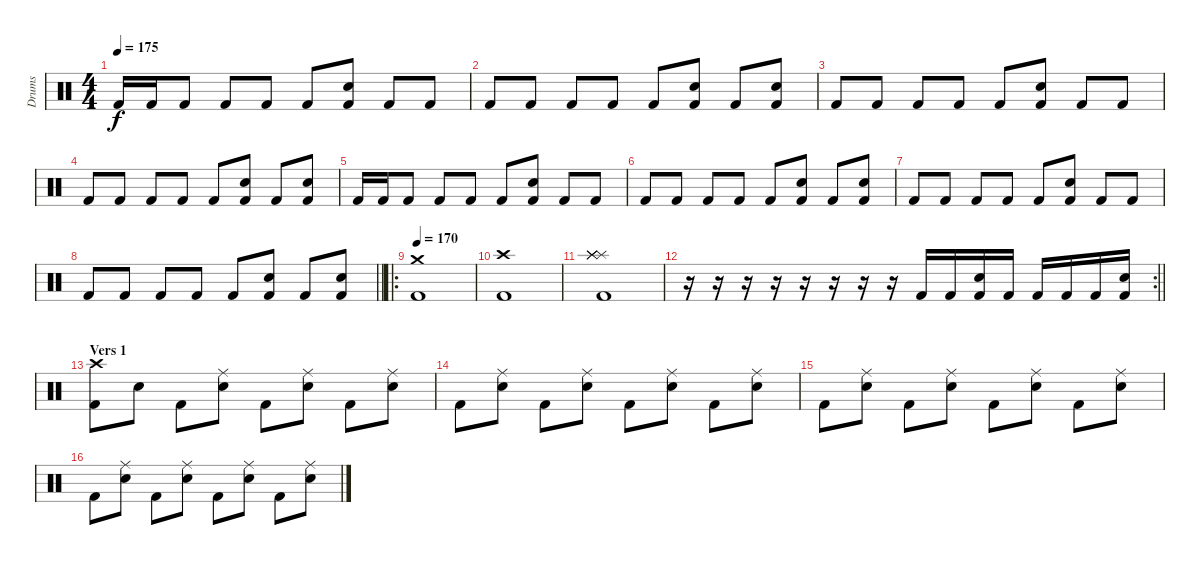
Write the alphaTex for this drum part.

\track ("Drums" "Drums") {instrument percussion}
\staff {score}
\articulation defaults
\ts (4 4)
\tempo 175
\clef neutral
\ks c "Kick (hit) 2".16{dy f} "Kick (hit) 2".16 "Kick (hit) 2".8 "Kick (hit) 2".8 "Kick (hit) 2".8 "Kick (hit) 2".8
("Snare (hit) 2" "Kick (hit) 2").8 "Kick (hit) 2".8 "Kick (hit) 2".8 |
"Kick (hit) 2".8 "Kick (hit) 2".8 "Kick (hit) 2".8 "Kick (hit) 2".8 "Kick (hit) 2".8 ("Snare (hit) 2" "Kick (hit) 2").8 "Kick (hit) 2".8 ("Snare (hit) 2" "Kick (hit) 2").8 |
"Kick (hit) 2".8 "Kick (hit) 2".8 "Kick (hit) 2".8 "Kick (hit) 2".8 "Kick (hit) 2".8 ("Snare (hit) 2" "Kick (hit) 2").8 "Kick (hit) 2".8 "Kick (hit) 2".8 |
"Kick (hit) 2".8 "Kick (hit) 2".8 "Kick (hit) 2".8 "Kick (hit) 2".8 "Kick (hit) 2".8 ("Snare (hit) 2" "Kick (hit) 2").8 "Kick (hit) 2".8 ("Snare (hit) 2" "Kick (hit) 2").8 |
"Kick (hit) 2".16 "Kick (hit) 2".16 "Kick (hit) 2".8 "Kick (hit) 2".8 "Kick (hit) 2".8 "Kick (hit) 2".8 ("Snare (hit) 2" "Kick (hit) 2").8 "Kick (hit) 2".8 "Kick (hit) 2".8 |
"Kick (hit) 2".8 "Kick (hit) 2".8 "Kick (hit) 2".8 "Kick (hit) 2".8 "Kick (hit) 2".8 ("Snare (hit) 2" "Kick (hit) 2").8 "Kick (hit) 2".8 ("Snare (hit) 2" "Kick (hit) 2").8 |
"Kick (hit) 2".8 "Kick (hit) 2".8 "Kick (hit) 2".8 "Kick (hit) 2".8 "Kick (hit) 2".8 ("Snare (hit) 2" "Kick (hit) 2").8 "Kick (hit) 2".8 "Kick (hit) 2".8 |
\barLineRight lightlight "Kick (hit) 2".8 "Kick (hit) 2".8 "Kick (hit) 2".8 "Kick (hit) 2".8 "Kick (hit) 2".8
("Snare (hit) 2" "Kick (hit) 2").8 "Kick (hit) 2".8 ("Snare (hit) 2" "Kick (hit) 2").8 |
\ro
\tempo 170
("Crash medium (hit)" "Kick (hit) 2").1 |
("Crash high (hit)" "Kick (hit) 2").1 |
("Splash (hit)" "Splash (hit)" "Splash (hit)" "Splash (hit)" "Kick (hit) 2").1 |
\rc 2
\barLineRight lightlight
r.16 r.16 r.16 r.16 r.16 r.16 r.16 r.16 "Kick (hit) 2".16 "Kick (hit) 2".16 ("Snare (hit) 2" "Kick (hit) 2").16 "Kick (hit) 2".16 "Kick (hit) 2".16 "Kick (hit) 2".16 "Kick (hit) 2".16 ("Snare (hit) 2" "Kick (hit) 2").16 |
\section ("" "Vers 1")
("Crash high (hit)" "Kick (hit) 2").8 "Snare (hit) 2".8 "Kick (hit) 2".8 ("Ride (middle)" "Snare (hit) 2").8 "Kick (hit) 2".8 ("Ride (middle)" "Snare (hit) 2").8 "Kick (hit) 2".8 ("Ride (middle)" "Snare (hit) 2").8 |
"Kick (hit) 2".8 ("Ride (middle)" "Snare (hit) 2").8 "Kick (hit) 2".8 ("Ride (middle)" "Snare (hit) 2").8 "Kick (hit) 2".8 ("Ride (middle)" "Snare (hit) 2").8 "Kick (hit) 2".8 ("Ride (middle)" "Snare (hit) 2").8 |
"Kick (hit) 2".8 ("Ride (middle)" "Snare (hit) 2").8 "Kick (hit) 2".8 ("Ride (middle)" "Snare (hit) 2").8 "Kick (hit) 2".8 ("Ride (middle)" "Snare (hit) 2").8 "Kick (hit) 2".8 ("Ride (middle)" "Snare (hit) 2").8 |
"Kick (hit) 2".8 ("Ride (middle)" "Snare (hit) 2").8 "Kick (hit) 2".8 ("Ride (middle)" "Snare (hit) 2").8 "Kick (hit) 2".8 ("Ride (middle)" "Snare (hit) 2").8 "Kick (hit) 2".8 ("Ride (middle)" "Snare (hit) 2").8
